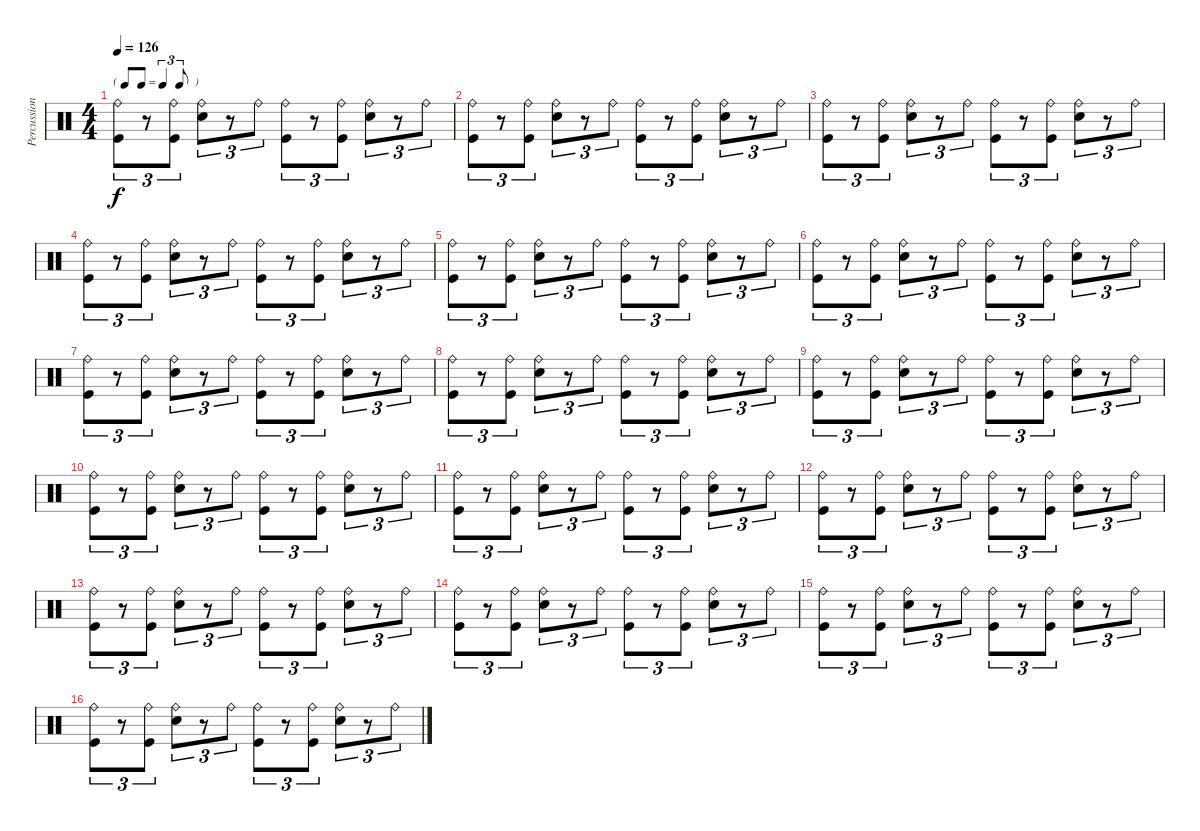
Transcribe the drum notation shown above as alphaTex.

\track ("Percussions" "Percussion") {instrument percussion}
\staff {score}
\articulation defaults
\ts (4 4)
\tf triplet8th
\tempo 126
\clef neutral
\ks c
("Ride (bell)" "Kick (hit)").8{tu (3 2) dy f} r.8{tu (3 2)} ("Ride (bell)" "Kick (hit)").8{tu (3 2)} ("Ride (bell)" "Electric Snare (hit)").8{tu (3 2)} r.8{tu (3 2)} "Ride (bell)".8{tu (3 2)} ("Ride (bell)" "Kick (hit)").8{tu (3 2)} r.8{tu (3 2)} ("Ride (bell)" "Kick (hit)").8{tu (3 2)} ("Ride (bell)" "Electric Snare (hit)").8{tu (3 2)} r.8{tu (3 2)} "Ride (bell)".8{tu (3 2)} |
("Ride (bell)" "Kick (hit)").8{tu (3 2)} r.8{tu (3 2)} ("Ride (bell)" "Kick (hit)").8{tu (3 2)} ("Ride (bell)" "Electric Snare (hit)").8{tu (3 2)} r.8{tu (3 2)} "Ride (bell)".8{tu (3 2)} ("Ride (bell)" "Kick (hit)").8{tu (3 2)} r.8{tu (3 2)} ("Ride (bell)" "Kick (hit)").8{tu (3 2)} ("Ride (bell)" "Electric Snare (hit)").8{tu (3 2)} r.8{tu (3 2)} "Ride (bell)".8{tu (3 2)} |
("Ride (bell)" "Kick (hit)").8{tu (3 2)} r.8{tu (3 2)} ("Ride (bell)" "Kick (hit)").8{tu (3 2)} ("Ride (bell)" "Electric Snare (hit)").8{tu (3 2)} r.8{tu (3 2)} "Ride (bell)".8{tu (3 2)} ("Ride (bell)" "Kick (hit)").8{tu (3 2)} r.8{tu (3 2)} ("Ride (bell)" "Kick (hit)").8{tu (3 2)} ("Ride (bell)" "Electric Snare (hit)").8{tu (3 2)} r.8{tu (3 2)} "Ride (bell)".8{tu (3 2)} |
("Ride (bell)" "Kick (hit)").8{tu (3 2)} r.8{tu (3 2)} ("Ride (bell)" "Kick (hit)").8{tu (3 2)} ("Ride (bell)" "Electric Snare (hit)").8{tu (3 2)} r.8{tu (3 2)} "Ride (bell)".8{tu (3 2)} ("Ride (bell)" "Kick (hit)").8{tu (3 2)} r.8{tu (3 2)} ("Ride (bell)" "Kick (hit)").8{tu (3 2)} ("Ride (bell)" "Electric Snare (hit)").8{tu (3 2)} r.8{tu (3 2)} "Ride (bell)".8{tu (3 2)} |
("Ride (bell)" "Kick (hit)").8{tu (3 2)} r.8{tu (3 2)} ("Ride (bell)" "Kick (hit)").8{tu (3 2)} ("Ride (bell)" "Electric Snare (hit)").8{tu (3 2)} r.8{tu (3 2)} "Ride (bell)".8{tu (3 2)} ("Ride (bell)" "Kick (hit)").8{tu (3 2)} r.8{tu (3 2)} ("Ride (bell)" "Kick (hit)").8{tu (3 2)} ("Ride (bell)" "Electric Snare (hit)").8{tu (3 2)} r.8{tu (3 2)} "Ride (bell)".8{tu (3 2)} |
("Ride (bell)" "Kick (hit)").8{tu (3 2)} r.8{tu (3 2)} ("Ride (bell)" "Kick (hit)").8{tu (3 2)} ("Ride (bell)" "Electric Snare (hit)").8{tu (3 2)} r.8{tu (3 2)} "Ride (bell)".8{tu (3 2)} ("Ride (bell)" "Kick (hit)").8{tu (3 2)} r.8{tu (3 2)} ("Ride (bell)" "Kick (hit)").8{tu (3 2)} ("Ride (bell)" "Electric Snare (hit)").8{tu (3 2)} r.8{tu (3 2)} "Ride (bell)".8{tu (3 2)} |
("Ride (bell)" "Kick (hit)").8{tu (3 2)} r.8{tu (3 2)} ("Ride (bell)" "Kick (hit)").8{tu (3 2)} ("Ride (bell)" "Electric Snare (hit)").8{tu (3 2)} r.8{tu (3 2)} "Ride (bell)".8{tu (3 2)} ("Ride (bell)" "Kick (hit)").8{tu (3 2)} r.8{tu (3 2)} ("Ride (bell)" "Kick (hit)").8{tu (3 2)} ("Ride (bell)" "Electric Snare (hit)").8{tu (3 2)} r.8{tu (3 2)} "Ride (bell)".8{tu (3 2)} |
("Ride (bell)" "Kick (hit)").8{tu (3 2)} r.8{tu (3 2)} ("Ride (bell)" "Kick (hit)").8{tu (3 2)} ("Ride (bell)" "Electric Snare (hit)").8{tu (3 2)} r.8{tu (3 2)} "Ride (bell)".8{tu (3 2)} ("Ride (bell)" "Kick (hit)").8{tu (3 2)} r.8{tu (3 2)} ("Ride (bell)" "Kick (hit)").8{tu (3 2)} ("Ride (bell)" "Electric Snare (hit)").8{tu (3 2)} r.8{tu (3 2)} "Ride (bell)".8{tu (3 2)} |
("Ride (bell)" "Kick (hit)").8{tu (3 2)} r.8{tu (3 2)} ("Ride (bell)" "Kick (hit)").8{tu (3 2)} ("Ride (bell)" "Electric Snare (hit)").8{tu (3 2)} r.8{tu (3 2)} "Ride (bell)".8{tu (3 2)} ("Ride (bell)" "Kick (hit)").8{tu (3 2)} r.8{tu (3 2)} ("Ride (bell)" "Kick (hit)").8{tu (3 2)} ("Ride (bell)" "Electric Snare (hit)").8{tu (3 2)} r.8{tu (3 2)} "Ride (bell)".8{tu (3 2)} |
("Ride (bell)" "Kick (hit)").8{tu (3 2)} r.8{tu (3 2)} ("Ride (bell)" "Kick (hit)").8{tu (3 2)} ("Ride (bell)" "Electric Snare (hit)").8{tu (3 2)} r.8{tu (3 2)} "Ride (bell)".8{tu (3 2)} ("Ride (bell)" "Kick (hit)").8{tu (3 2)} r.8{tu (3 2)} ("Ride (bell)" "Kick (hit)").8{tu (3 2)} ("Ride (bell)" "Electric Snare (hit)").8{tu (3 2)} r.8{tu (3 2)} "Ride (bell)".8{tu (3 2)} |
("Ride (bell)" "Kick (hit)").8{tu (3 2)} r.8{tu (3 2)} ("Ride (bell)" "Kick (hit)").8{tu (3 2)} ("Ride (bell)" "Electric Snare (hit)").8{tu (3 2)} r.8{tu (3 2)} "Ride (bell)".8{tu (3 2)} ("Ride (bell)" "Kick (hit)").8{tu (3 2)} r.8{tu (3 2)} ("Ride (bell)" "Kick (hit)").8{tu (3 2)} ("Ride (bell)" "Electric Snare (hit)").8{tu (3 2)} r.8{tu (3 2)} "Ride (bell)".8{tu (3 2)} |
("Ride (bell)" "Kick (hit)").8{tu (3 2)} r.8{tu (3 2)} ("Ride (bell)" "Kick (hit)").8{tu (3 2)} ("Ride (bell)" "Electric Snare (hit)").8{tu (3 2)} r.8{tu (3 2)} "Ride (bell)".8{tu (3 2)} ("Ride (bell)" "Kick (hit)").8{tu (3 2)} r.8{tu (3 2)} ("Ride (bell)" "Kick (hit)").8{tu (3 2)} ("Ride (bell)" "Electric Snare (hit)").8{tu (3 2)} r.8{tu (3 2)} "Ride (bell)".8{tu (3 2)} |
("Ride (bell)" "Kick (hit)").8{tu (3 2)} r.8{tu (3 2)} ("Ride (bell)" "Kick (hit)").8{tu (3 2)} ("Ride (bell)" "Electric Snare (hit)").8{tu (3 2)} r.8{tu (3 2)} "Ride (bell)".8{tu (3 2)} ("Ride (bell)" "Kick (hit)").8{tu (3 2)} r.8{tu (3 2)} ("Ride (bell)" "Kick (hit)").8{tu (3 2)} ("Ride (bell)" "Electric Snare (hit)").8{tu (3 2)} r.8{tu (3 2)} "Ride (bell)".8{tu (3 2)} |
("Ride (bell)" "Kick (hit)").8{tu (3 2)} r.8{tu (3 2)} ("Ride (bell)" "Kick (hit)").8{tu (3 2)} ("Ride (bell)" "Electric Snare (hit)").8{tu (3 2)} r.8{tu (3 2)} "Ride (bell)".8{tu (3 2)} ("Ride (bell)" "Kick (hit)").8{tu (3 2)} r.8{tu (3 2)} ("Ride (bell)" "Kick (hit)").8{tu (3 2)} ("Ride (bell)" "Electric Snare (hit)").8{tu (3 2)} r.8{tu (3 2)} "Ride (bell)".8{tu (3 2)} |
("Ride (bell)" "Kick (hit)").8{tu (3 2)} r.8{tu (3 2)} ("Ride (bell)" "Kick (hit)").8{tu (3 2)} ("Ride (bell)" "Electric Snare (hit)").8{tu (3 2)} r.8{tu (3 2)} "Ride (bell)".8{tu (3 2)} ("Ride (bell)" "Kick (hit)").8{tu (3 2)} r.8{tu (3 2)} ("Ride (bell)" "Kick (hit)").8{tu (3 2)} ("Ride (bell)" "Electric Snare (hit)").8{tu (3 2)} r.8{tu (3 2)} "Ride (bell)".8{tu (3 2)} |
("Ride (bell)" "Kick (hit)").8{tu (3 2)} r.8{tu (3 2)} ("Ride (bell)" "Kick (hit)").8{tu (3 2)} ("Ride (bell)" "Electric Snare (hit)").8{tu (3 2)} r.8{tu (3 2)} "Ride (bell)".8{tu (3 2)} ("Ride (bell)" "Kick (hit)").8{tu (3 2)} r.8{tu (3 2)} ("Ride (bell)" "Kick (hit)").8{tu (3 2)} ("Ride (bell)" "Electric Snare (hit)").8{tu (3 2)} r.8{tu (3 2)} "Ride (bell)".8{tu (3 2)}
